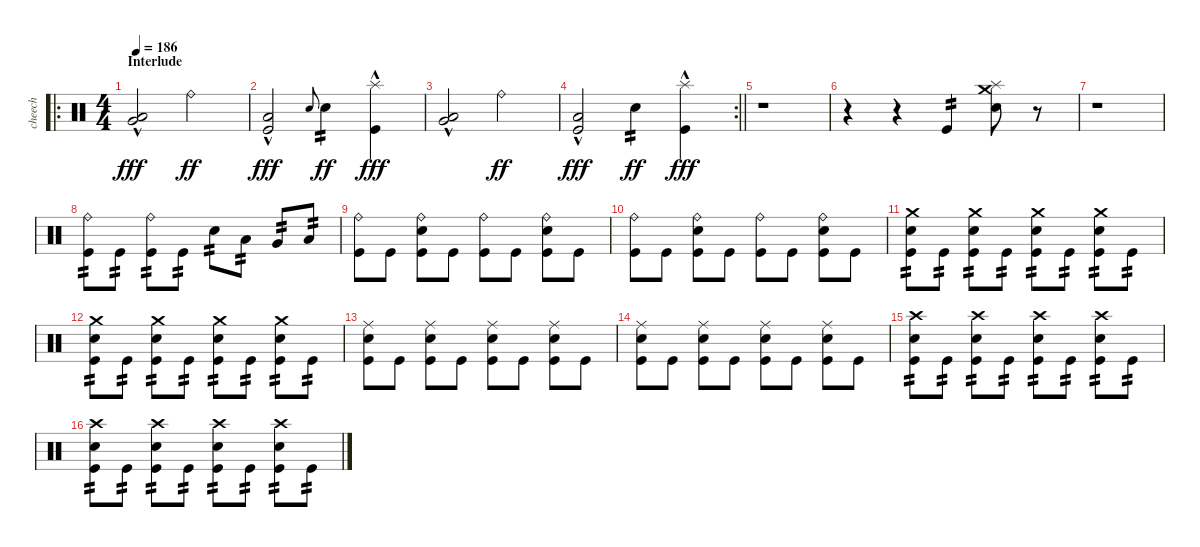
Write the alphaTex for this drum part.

\track ("cheech" "cheech") {instrument percussion}
\staff {score}
\articulation defaults
\ro
\ts (4 4)
\section ("" "Interlude")
\tempo 186
\clef neutral
\ks c
("Very Low Tom (hit)"{hac} "Low Floor Tom (hit)"{hac}).2{dy fff} "Ride (bell)".2{dy ff} |
("Low Floor Tom (hit)"{hac} "Kick (hit)"{hac}).2{dy fff} "Electric Snare (hit)"{h x}.8{gr onbeat} "Electric Snare (hit)".4{tp 2 dy ff} ("Splash (hit)" "Kick (hit)"{hac}).4{dy fff} |
("Very Low Tom (hit)"{hac} "Low Floor Tom (hit)"{hac}).2 "Ride (bell)".2{dy ff} |
\rc 2
\barLineRight lightlight
("Low Floor Tom (hit)"{hac} "Kick (hit)"{hac}).2{dy fff} "Electric Snare (hit)".4{tp 2 dy ff} ("Splash (hit)" "Kick (hit)"{hac}).4{dy fff} |
r.1 |
r.4 r.4 "Kick (hit)".4{tp 2} ("Splash (hit)" "Crash medium (hit)" "Electric Snare (hit)").8 r.8 |
r.1 |
("Ride (bell)" "Kick (hit)").8{tp 2} "Kick (hit)".8{tp 2} ("Ride (bell)" "Kick (hit)").8{tp 2} "Kick (hit)".8{tp 2} "Electric Snare (hit)".8{tp 2} "Low Tom (hit)".8{tp 2} "Very Low Tom (hit)".8{tp 2} "Low Floor Tom (hit)".8{tp 2} |
("Ride (bell)" "Kick (hit)").8 "Kick (hit)".8 ("Ride (bell)" "Electric Snare (hit)" "Kick (hit)").8 "Kick (hit)".8 ("Ride (bell)" "Kick (hit)").8 "Kick (hit)".8 ("Ride (bell)" "Electric Snare (hit)" "Kick (hit)").8 "Kick (hit)".8 |
("Ride (bell)" "Kick (hit)").8 "Kick (hit)".8 ("Ride (bell)" "Electric Snare (hit)" "Kick (hit)").8 "Kick (hit)".8 ("Ride (bell)" "Kick (hit)").8 "Kick (hit)".8 ("Ride (bell)" "Electric Snare (hit)" "Kick (hit)").8 "Kick (hit)".8 |
("Crash medium (hit)" "Electric Snare (hit)" "Kick (hit)").8{tp 2} "Kick (hit)".8{tp 2} ("Crash medium (hit)" "Electric Snare (hit)" "Kick (hit)").8{tp 2} "Kick (hit)".8{tp 2} ("Crash medium (hit)" "Electric Snare (hit)" "Kick (hit)").8{tp 2} "Kick (hit)".8{tp 2} ("Crash medium (hit)" "Electric Snare (hit)" "Kick (hit)").8{tp 2} "Kick (hit)".8{tp 2} |
("Crash medium (hit)" "Electric Snare (hit)" "Kick (hit)").8{tp 2} "Kick (hit)".8{tp 2} ("Crash medium (hit)" "Electric Snare (hit)" "Kick (hit)").8{tp 2} "Kick (hit)".8{tp 2} ("Crash medium (hit)" "Electric Snare (hit)" "Kick (hit)").8{tp 2} "Kick (hit)".8{tp 2} ("Crash medium (hit)" "Electric Snare (hit)" "Kick (hit)").8{tp 2} "Kick (hit)".8{tp 2} |
("Ride (middle)" "Electric Snare (hit)" "Kick (hit)").8 "Kick (hit)".8 ("Ride (middle)" "Electric Snare (hit)" "Kick (hit)").8 "Kick (hit)".8 ("Ride (middle)" "Electric Snare (hit)" "Kick (hit)").8 "Kick (hit)".8 ("Ride (middle)" "Electric Snare (hit)" "Kick (hit)").8 "Kick (hit)".8 |
("Ride (middle)" "Electric Snare (hit)" "Kick (hit)").8 "Kick (hit)".8 ("Ride (middle)" "Electric Snare (hit)" "Kick (hit)").8 "Kick (hit)".8 ("Ride (middle)" "Electric Snare (hit)" "Kick (hit)").8 "Kick (hit)".8 ("Ride (middle)" "Electric Snare (hit)" "Kick (hit)").8 "Kick (hit)".8 |
("Crash high (hit)" "Electric Snare (hit)" "Kick (hit)").8{tp 2} "Kick (hit)".8{tp 2} ("Crash high (hit)" "Electric Snare (hit)" "Kick (hit)").8{tp 2} "Kick (hit)".8{tp 2} ("Crash high (hit)" "Electric Snare (hit)" "Kick (hit)").8{tp 2} "Kick (hit)".8{tp 2} ("Crash high (hit)" "Electric Snare (hit)" "Kick (hit)").8{tp 2} "Kick (hit)".8{tp 2} |
("Crash high (hit)" "Electric Snare (hit)" "Kick (hit)").8{tp 2} "Kick (hit)".8{tp 2} ("Crash high (hit)" "Electric Snare (hit)" "Kick (hit)").8{tp 2} "Kick (hit)".8{tp 2} ("Crash high (hit)" "Electric Snare (hit)" "Kick (hit)").8{tp 2} "Kick (hit)".8{tp 2} ("Crash high (hit)" "Electric Snare (hit)" "Kick (hit)").8{tp 2} "Kick (hit)".8{tp 2}
